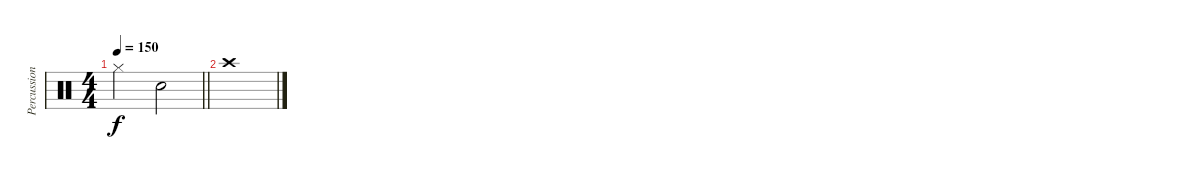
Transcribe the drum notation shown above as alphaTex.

\track ("Percussioni" "Percussion") {instrument percussion}
\staff {score}
\articulation defaults
\ts (4 4)
\tempo 150
\clef neutral
\barLineRight lightlight
\ks c "Hi-Hat (closed)".2{dy f} "Snare (hit) 2".2
|
"Crash high (hit)".1
